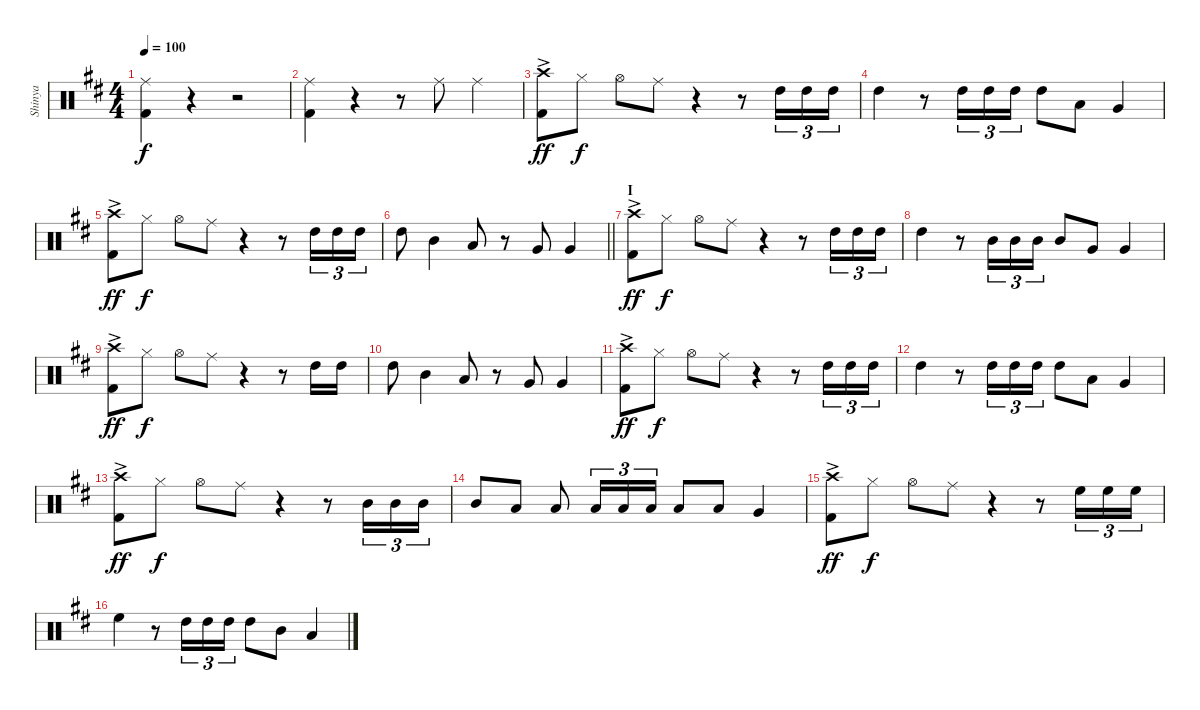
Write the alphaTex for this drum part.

\track ("Shinya" "Shinya") {instrument percussion}
\staff {score}
\articulation defaults
\ts (4 4)
\tempo 100
\clef neutral
\ks d
("Ride (middle)" "Kick (hit) 2").4{dy f} r.4 r.2 |
("Ride (middle)" "Kick (hit) 2").4 r.4 r.8 "Ride (middle)".8 "Ride (middle)".4 |
("Crash high (hit)"{ac} "Kick (hit) 2").8{dy ff} "Hi-Hat (closed)".8{dy f} "Hi-Hat (open)".8 "Ride (middle)".8 r.4 r.8 "High Tom (hit)".16{tu (3 2)} "High Tom (hit)".16{tu (3 2)} "High Tom (hit)".16{tu (3 2)} |
"High Tom (hit)".4 r.8 "High Tom (hit)".16{tu (3 2)} "High Tom (hit)".16{tu (3 2)} "High Tom (hit)".16{tu (3 2)} "High Tom (hit)".8 "Low Tom (hit)".8 "Very Low Tom (hit)".4 |
("Crash high (hit)"{ac} "Kick (hit) 2").8{dy ff} "Hi-Hat (closed)".8{dy f} "Hi-Hat (open)".8 "Ride (middle)".8 r.4 r.8 "High Tom (hit)".16{tu (3 2)} "High Tom (hit)".16{tu (3 2)} "High Tom (hit)".16{tu (3 2)} |
\barLineRight lightlight "High Tom (hit)".8 "Mid Tom (hit)".4 "Low Tom (hit)".8
r.8 "Very Low Tom (hit)".8 "Very Low Tom (hit)".4 |
\section ("" "I")
("Crash high (hit)"{ac} "Kick (hit) 2").8{dy ff} "Hi-Hat (closed)".8{dy f} "Hi-Hat (open)".8 "Ride (middle)".8 r.4 r.8 "High Tom (hit)".16{tu (3 2)} "High Tom (hit)".16{tu (3 2)} "High Tom (hit)".16{tu (3 2)} |
"High Tom (hit)".4 r.8 "Mid Tom (hit)".16{tu (3 2)} "Mid Tom (hit)".16{tu (3 2)} "Mid Tom (hit)".16{tu (3 2)} "Mid Tom (hit)".8 "Very Low Tom (hit)".8 "Very Low Tom (hit)".4 |
("Crash high (hit)"{ac} "Kick (hit) 2").8{dy ff} "Hi-Hat (closed)".8{dy f} "Hi-Hat (open)".8 "Ride (middle)".8 r.4 r.8 "High Tom (hit)".16 "High Tom (hit)".16 |
"High Tom (hit)".8 "Mid Tom (hit)".4 "Low Tom (hit)".8 r.8 "Very Low Tom (hit)".8 "Very Low Tom (hit)".4 |
("Crash high (hit)"{ac} "Kick (hit) 2").8{dy ff} "Hi-Hat (closed)".8{dy f} "Hi-Hat (open)".8 "Ride (middle)".8 r.4 r.8 "High Tom (hit)".16{tu (3 2)} "High Tom (hit)".16{tu (3 2)} "High Tom (hit)".16{tu (3 2)} |
"High Tom (hit)".4 r.8 "High Tom (hit)".16{tu (3 2)} "High Tom (hit)".16{tu (3 2)} "High Tom (hit)".16{tu (3 2)} "High Tom (hit)".8 "Low Tom (hit)".8 "Very Low Tom (hit)".4 |
("Crash high (hit)"{ac} "Kick (hit) 2").8{dy ff} "Hi-Hat (closed)".8{dy f} "Hi-Hat (open)".8 "Ride (middle)".8 r.4 r.8 "Mid Tom (hit)".16{tu (3 2)} "Mid Tom (hit)".16{tu (3 2)} "Mid Tom (hit)".16{tu (3 2)} |
"Mid Tom (hit)".8 "Low Tom (hit)".8 "Low Tom (hit)".8 "Low Tom (hit)".16{tu (3 2)} "Low Tom (hit)".16{tu (3 2)} "Low Tom (hit)".16{tu (3 2)} "Low Tom (hit)".8 "Low Tom (hit)".8 "Very Low Tom (hit)".4 |
("Crash high (hit)"{ac} "Kick (hit) 2").8{dy ff} "Hi-Hat (closed)".8{dy f} "Hi-Hat (open)".8 "Ride (middle)".8 r.4 r.8 "High Floor Tom (hit)".16{tu (3 2)} "High Floor Tom (hit)".16{tu (3 2)} "High Floor Tom (hit)".16{tu (3 2)} |
"High Floor Tom (hit)".4 r.8 "High Tom (hit)".16{tu (3 2)} "High Tom (hit)".16{tu (3 2)} "High Tom (hit)".16{tu (3 2)} "High Tom (hit)".8 "Mid Tom (hit)".8 "Low Tom (hit)".4
